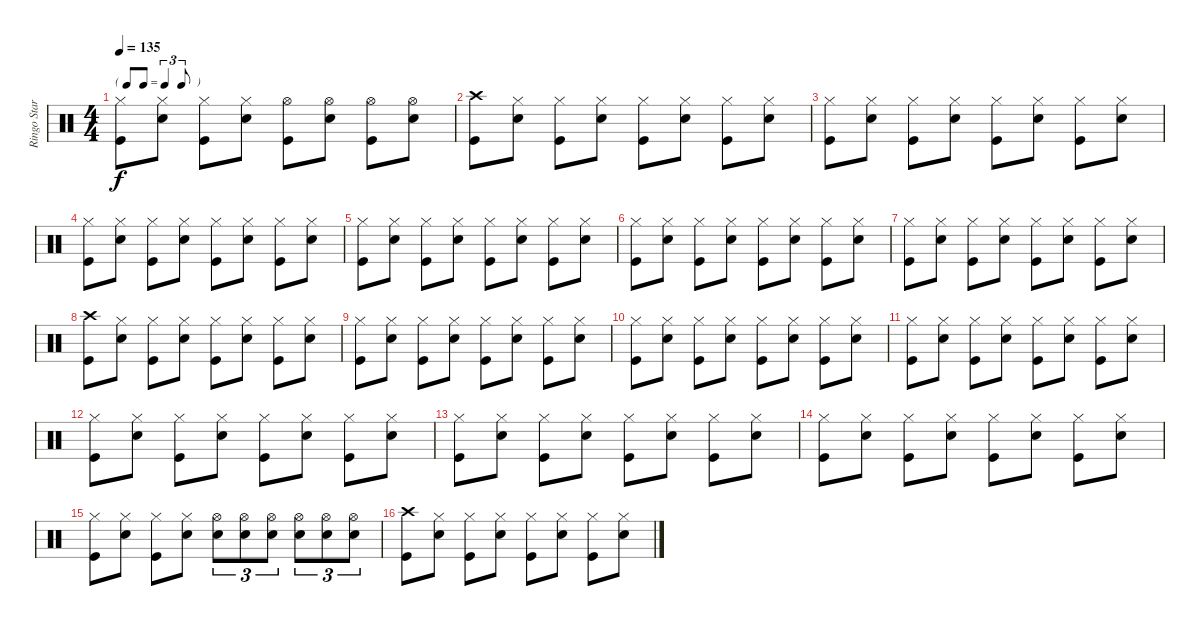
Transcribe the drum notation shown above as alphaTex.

\track ("Ringo Star" "Ringo Star") {instrument percussion}
\staff {score}
\articulation defaults
\ts (4 4)
\tf triplet8th
\tempo 135
\clef neutral
\ks c
("Hi-Hat (closed)" "Kick (hit)").8{dy f} ("Hi-Hat (closed)" "Snare (hit) 2").8 ("Hi-Hat (closed)" "Kick (hit)").8 ("Hi-Hat (closed)" "Snare (hit) 2").8 ("Hi-Hat (open)" "Kick (hit)").8 ("Hi-Hat (open)" "Snare (hit) 2").8 ("Hi-Hat (open)" "Kick (hit)").8 ("Hi-Hat (open)" "Snare (hit) 2").8 |
("Crash high (hit)" "Kick (hit)").8 ("Hi-Hat (closed)" "Snare (hit) 2").8 ("Hi-Hat (closed)" "Kick (hit)").8 ("Hi-Hat (closed)" "Snare (hit) 2").8 ("Hi-Hat (closed)" "Kick (hit)").8 ("Hi-Hat (closed)" "Snare (hit) 2").8 ("Hi-Hat (closed)" "Kick (hit)").8 ("Hi-Hat (closed)" "Snare (hit) 2").8 |
("Hi-Hat (closed)" "Kick (hit)").8 ("Hi-Hat (closed)" "Snare (hit) 2").8 ("Hi-Hat (closed)" "Kick (hit)").8 ("Hi-Hat (closed)" "Snare (hit) 2").8 ("Hi-Hat (closed)" "Kick (hit)").8 ("Hi-Hat (closed)" "Snare (hit) 2").8 ("Hi-Hat (closed)" "Kick (hit)").8 ("Hi-Hat (closed)" "Snare (hit) 2").8 |
("Hi-Hat (closed)" "Kick (hit)").8 ("Hi-Hat (closed)" "Snare (hit) 2").8 ("Hi-Hat (closed)" "Kick (hit)").8 ("Hi-Hat (closed)" "Snare (hit) 2").8 ("Hi-Hat (closed)" "Kick (hit)").8 ("Hi-Hat (closed)" "Snare (hit) 2").8 ("Hi-Hat (closed)" "Kick (hit)").8 ("Hi-Hat (closed)" "Snare (hit) 2").8 |
("Hi-Hat (closed)" "Kick (hit)").8 ("Hi-Hat (closed)" "Snare (hit) 2").8 ("Hi-Hat (closed)" "Kick (hit)").8 ("Hi-Hat (closed)" "Snare (hit) 2").8 ("Hi-Hat (closed)" "Kick (hit)").8 ("Hi-Hat (closed)" "Snare (hit) 2").8 ("Hi-Hat (closed)" "Kick (hit)").8 ("Hi-Hat (closed)" "Snare (hit) 2").8 |
("Hi-Hat (closed)" "Kick (hit)").8 ("Hi-Hat (closed)" "Snare (hit) 2").8 ("Hi-Hat (closed)" "Kick (hit)").8 ("Hi-Hat (closed)" "Snare (hit) 2").8 ("Hi-Hat (closed)" "Kick (hit)").8 ("Hi-Hat (closed)" "Snare (hit) 2").8 ("Hi-Hat (closed)" "Kick (hit)").8 ("Hi-Hat (closed)" "Snare (hit) 2").8 |
("Hi-Hat (closed)" "Kick (hit)").8 ("Hi-Hat (closed)" "Snare (hit) 2").8 ("Hi-Hat (closed)" "Kick (hit)").8 ("Hi-Hat (closed)" "Snare (hit) 2").8 ("Hi-Hat (closed)" "Kick (hit)").8 ("Hi-Hat (closed)" "Snare (hit) 2").8 ("Hi-Hat (closed)" "Kick (hit)").8 ("Hi-Hat (closed)" "Snare (hit) 2").8 |
("Crash high (hit)" "Kick (hit)").8 ("Hi-Hat (closed)" "Snare (hit) 2").8 ("Hi-Hat (closed)" "Kick (hit)").8 ("Hi-Hat (closed)" "Snare (hit) 2").8 ("Hi-Hat (closed)" "Kick (hit)").8 ("Hi-Hat (closed)" "Snare (hit) 2").8 ("Hi-Hat (closed)" "Kick (hit)").8 ("Hi-Hat (closed)" "Snare (hit) 2").8 |
("Hi-Hat (closed)" "Kick (hit)").8 ("Hi-Hat (closed)" "Snare (hit) 2").8 ("Hi-Hat (closed)" "Kick (hit)").8 ("Hi-Hat (closed)" "Snare (hit) 2").8 ("Hi-Hat (closed)" "Kick (hit)").8 ("Hi-Hat (closed)" "Snare (hit) 2").8 ("Hi-Hat (closed)" "Kick (hit)").8 ("Hi-Hat (closed)" "Snare (hit) 2").8 |
("Hi-Hat (closed)" "Kick (hit)").8 ("Hi-Hat (closed)" "Snare (hit) 2").8 ("Hi-Hat (closed)" "Kick (hit)").8 ("Hi-Hat (closed)" "Snare (hit) 2").8 ("Hi-Hat (closed)" "Kick (hit)").8 ("Hi-Hat (closed)" "Snare (hit) 2").8 ("Hi-Hat (closed)" "Kick (hit)").8 ("Hi-Hat (closed)" "Snare (hit) 2").8 |
("Hi-Hat (closed)" "Kick (hit)").8 ("Hi-Hat (closed)" "Snare (hit) 2").8 ("Hi-Hat (closed)" "Kick (hit)").8 ("Hi-Hat (closed)" "Snare (hit) 2").8 ("Hi-Hat (closed)" "Kick (hit)").8 ("Hi-Hat (closed)" "Snare (hit) 2").8 ("Hi-Hat (closed)" "Kick (hit)").8 ("Hi-Hat (closed)" "Snare (hit) 2").8 |
("Hi-Hat (closed)" "Kick (hit)").8 ("Hi-Hat (closed)" "Snare (hit) 2").8 ("Hi-Hat (closed)" "Kick (hit)").8 ("Hi-Hat (closed)" "Snare (hit) 2").8 ("Hi-Hat (closed)" "Kick (hit)").8 ("Hi-Hat (closed)" "Snare (hit) 2").8 ("Hi-Hat (closed)" "Kick (hit)").8 ("Hi-Hat (closed)" "Snare (hit) 2").8 |
("Hi-Hat (closed)" "Kick (hit)").8 ("Hi-Hat (closed)" "Snare (hit) 2").8 ("Hi-Hat (closed)" "Kick (hit)").8 ("Hi-Hat (closed)" "Snare (hit) 2").8 ("Hi-Hat (closed)" "Kick (hit)").8 ("Hi-Hat (closed)" "Snare (hit) 2").8 ("Hi-Hat (closed)" "Kick (hit)").8 ("Hi-Hat (closed)" "Snare (hit) 2").8 |
("Hi-Hat (closed)" "Kick (hit)").8 ("Hi-Hat (closed)" "Snare (hit) 2").8 ("Hi-Hat (closed)" "Kick (hit)").8 ("Hi-Hat (closed)" "Snare (hit) 2").8 ("Hi-Hat (closed)" "Kick (hit)").8 ("Hi-Hat (closed)" "Snare (hit) 2").8 ("Hi-Hat (closed)" "Kick (hit)").8 ("Hi-Hat (closed)" "Snare (hit) 2").8 |
("Hi-Hat (closed)" "Kick (hit)").8 ("Hi-Hat (closed)" "Snare (hit) 2").8 ("Hi-Hat (closed)" "Kick (hit)").8 ("Hi-Hat (closed)" "Snare (hit) 2").8 ("Hi-Hat (open)" "Snare (hit) 2").8{tu (3 2)} ("Hi-Hat (open)" "Snare (hit) 2").8{tu (3 2)} ("Hi-Hat (open)" "Snare (hit) 2").8{tu (3 2)} ("Hi-Hat (open)" "Snare (hit) 2").8{tu (3 2)} ("Hi-Hat (open)" "Snare (hit) 2").8{tu (3 2)} ("Hi-Hat (open)" "Snare (hit) 2").8{tu (3 2)} |
("Crash high (hit)" "Kick (hit)").8 ("Hi-Hat (closed)" "Snare (hit) 2").8 ("Hi-Hat (closed)" "Kick (hit)").8 ("Hi-Hat (closed)" "Snare (hit) 2").8 ("Hi-Hat (closed)" "Kick (hit)").8 ("Hi-Hat (closed)" "Snare (hit) 2").8 ("Hi-Hat (closed)" "Kick (hit)").8 ("Hi-Hat (closed)" "Snare (hit) 2").8
